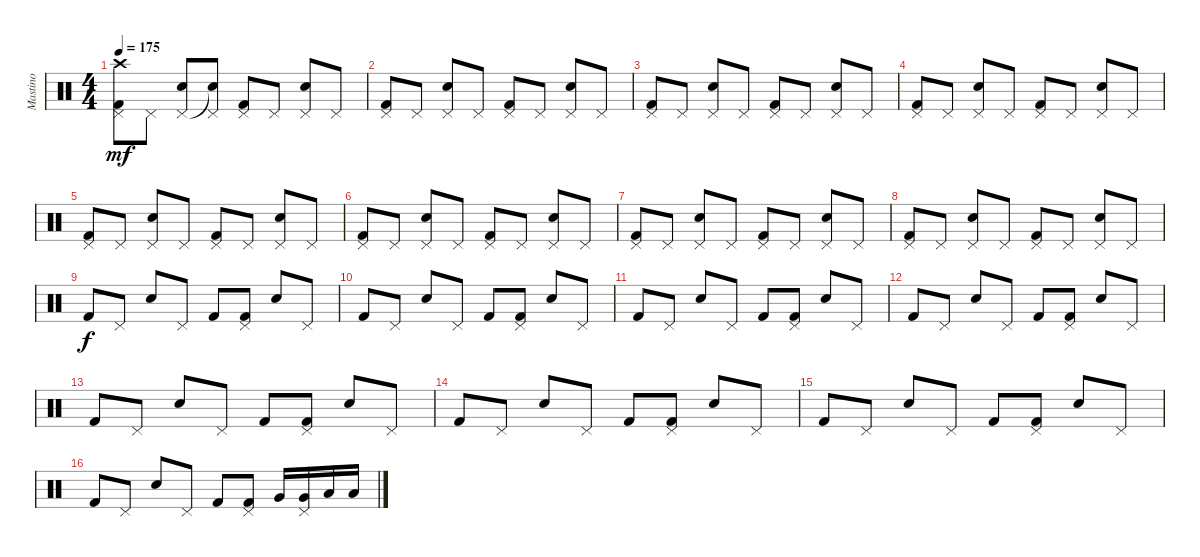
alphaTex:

\track ("Mastino" "Mastino") {instrument percussion}
\staff {score}
\articulation defaults
\ts (4 4)
\tempo 175
\clef neutral
\ks c
("Crash high (hit)" "Pedal Hi-Hat (hit)" "Kick (hit) 2").8{dy mf} "Pedal Hi-Hat (hit)".8 ("Pedal Hi-Hat (hit)" "Electric Snare (hit)").8 ("Snare (hit)"{t} "Pedal Hi-Hat (hit)").8 ("Pedal Hi-Hat (hit)" "Kick (hit) 2").8 "Pedal Hi-Hat (hit)".8 ("Pedal Hi-Hat (hit)" "Electric Snare (hit)").8 "Pedal Hi-Hat (hit)".8 |
("Pedal Hi-Hat (hit)" "Kick (hit) 2").8 "Pedal Hi-Hat (hit)".8 ("Pedal Hi-Hat (hit)" "Electric Snare (hit)").8 "Pedal Hi-Hat (hit)".8 ("Pedal Hi-Hat (hit)" "Kick (hit) 2").8 "Pedal Hi-Hat (hit)".8 ("Pedal Hi-Hat (hit)" "Electric Snare (hit)").8 "Pedal Hi-Hat (hit)".8 |
("Pedal Hi-Hat (hit)" "Kick (hit) 2").8 "Pedal Hi-Hat (hit)".8 ("Pedal Hi-Hat (hit)" "Electric Snare (hit)").8 "Pedal Hi-Hat (hit)".8 ("Pedal Hi-Hat (hit)" "Kick (hit) 2").8 "Pedal Hi-Hat (hit)".8 ("Pedal Hi-Hat (hit)" "Electric Snare (hit)").8 "Pedal Hi-Hat (hit)".8 |
("Pedal Hi-Hat (hit)" "Kick (hit) 2").8 "Pedal Hi-Hat (hit)".8 ("Pedal Hi-Hat (hit)" "Electric Snare (hit)").8 "Pedal Hi-Hat (hit)".8 ("Pedal Hi-Hat (hit)" "Kick (hit) 2").8 "Pedal Hi-Hat (hit)".8 ("Pedal Hi-Hat (hit)" "Electric Snare (hit)").8 "Pedal Hi-Hat (hit)".8 |
("Pedal Hi-Hat (hit)" "Kick (hit) 2").8 "Pedal Hi-Hat (hit)".8 ("Pedal Hi-Hat (hit)" "Electric Snare (hit)").8 "Pedal Hi-Hat (hit)".8 ("Pedal Hi-Hat (hit)" "Kick (hit) 2").8 "Pedal Hi-Hat (hit)".8 ("Pedal Hi-Hat (hit)" "Electric Snare (hit)").8 "Pedal Hi-Hat (hit)".8 |
("Pedal Hi-Hat (hit)" "Kick (hit) 2").8 "Pedal Hi-Hat (hit)".8 ("Pedal Hi-Hat (hit)" "Electric Snare (hit)").8 "Pedal Hi-Hat (hit)".8 ("Pedal Hi-Hat (hit)" "Kick (hit) 2").8 "Pedal Hi-Hat (hit)".8 ("Pedal Hi-Hat (hit)" "Electric Snare (hit)").8 "Pedal Hi-Hat (hit)".8 |
("Pedal Hi-Hat (hit)" "Kick (hit) 2").8 "Pedal Hi-Hat (hit)".8 ("Pedal Hi-Hat (hit)" "Electric Snare (hit)").8 "Pedal Hi-Hat (hit)".8 ("Pedal Hi-Hat (hit)" "Kick (hit) 2").8 "Pedal Hi-Hat (hit)".8 ("Pedal Hi-Hat (hit)" "Electric Snare (hit)").8 "Pedal Hi-Hat (hit)".8 |
("Pedal Hi-Hat (hit)" "Kick (hit) 2").8 "Pedal Hi-Hat (hit)".8 ("Pedal Hi-Hat (hit)" "Electric Snare (hit)").8 "Pedal Hi-Hat (hit)".8 ("Pedal Hi-Hat (hit)" "Kick (hit) 2").8 "Pedal Hi-Hat (hit)".8 ("Pedal Hi-Hat (hit)" "Electric Snare (hit)").8 "Pedal Hi-Hat (hit)".8 |
"Kick (hit) 2".8{dy f} "Pedal Hi-Hat (hit)".8 "Electric Snare (hit)".8 "Pedal Hi-Hat (hit)".8 "Kick (hit) 2".8 ("Pedal Hi-Hat (hit)" "Kick (hit) 2").8 "Electric Snare (hit)".8 "Pedal Hi-Hat (hit)".8 |
"Kick (hit) 2".8 "Pedal Hi-Hat (hit)".8 "Electric Snare (hit)".8 "Pedal Hi-Hat (hit)".8 "Kick (hit) 2".8 ("Pedal Hi-Hat (hit)" "Kick (hit) 2").8 "Electric Snare (hit)".8 "Pedal Hi-Hat (hit)".8 |
"Kick (hit) 2".8 "Pedal Hi-Hat (hit)".8 "Electric Snare (hit)".8 "Pedal Hi-Hat (hit)".8 "Kick (hit) 2".8 ("Pedal Hi-Hat (hit)" "Kick (hit) 2").8 "Electric Snare (hit)".8 "Pedal Hi-Hat (hit)".8 |
"Kick (hit) 2".8 "Pedal Hi-Hat (hit)".8 "Electric Snare (hit)".8 "Pedal Hi-Hat (hit)".8 "Kick (hit) 2".8 ("Pedal Hi-Hat (hit)" "Kick (hit) 2").8 "Electric Snare (hit)".8 "Pedal Hi-Hat (hit)".8 |
"Kick (hit) 2".8 "Pedal Hi-Hat (hit)".8 "Electric Snare (hit)".8 "Pedal Hi-Hat (hit)".8 "Kick (hit) 2".8 ("Pedal Hi-Hat (hit)" "Kick (hit) 2").8 "Electric Snare (hit)".8 "Pedal Hi-Hat (hit)".8 |
"Kick (hit) 2".8 "Pedal Hi-Hat (hit)".8 "Electric Snare (hit)".8 "Pedal Hi-Hat (hit)".8 "Kick (hit) 2".8 ("Pedal Hi-Hat (hit)" "Kick (hit) 2").8 "Electric Snare (hit)".8 "Pedal Hi-Hat (hit)".8 |
"Kick (hit) 2".8 "Pedal Hi-Hat (hit)".8 "Electric Snare (hit)".8 "Pedal Hi-Hat (hit)".8 "Kick (hit) 2".8 ("Pedal Hi-Hat (hit)" "Kick (hit) 2").8 "Electric Snare (hit)".8 "Pedal Hi-Hat (hit)".8 |
"Kick (hit) 2".8 "Pedal Hi-Hat (hit)".8 "Electric Snare (hit)".8 "Pedal Hi-Hat (hit)".8 "Kick (hit) 2".8 ("Pedal Hi-Hat (hit)" "Kick (hit) 2").8 "Very Low Tom (hit)".16 ("Pedal Hi-Hat (hit)" "Very Low Tom (hit)").16 "Low Floor Tom (hit)".16 "Low Floor Tom (hit)".16
